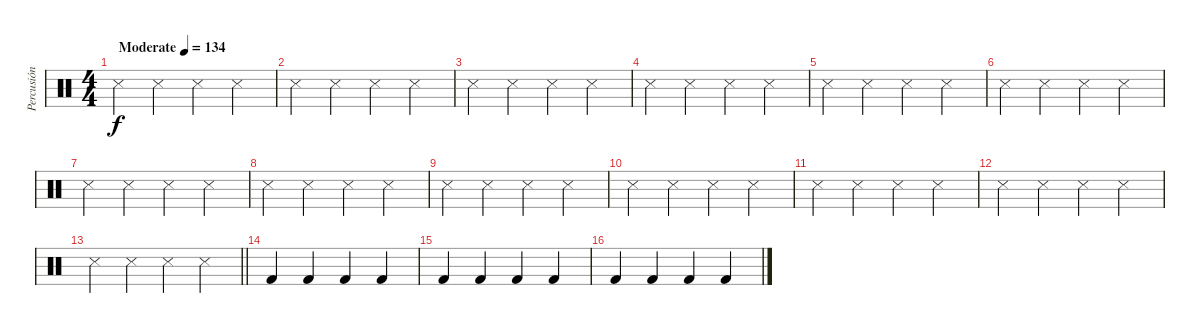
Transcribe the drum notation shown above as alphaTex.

\track ("Percusión" "Percusión") {instrument percussion}
\staff {score}
\articulation defaults
\ts (4 4)
\tempo (134 "Moderate")
\clef neutral
\ks c "Snare (side stick) 3".4{dy f} "Snare (side stick) 3".4 "Snare (side stick) 3".4 "Snare (side stick) 3".4
|
"Snare (side stick) 3".4 "Snare (side stick) 3".4 "Snare (side stick) 3".4 "Snare (side stick) 3".4 |
"Snare (side stick) 3".4 "Snare (side stick) 3".4 "Snare (side stick) 3".4 "Snare (side stick) 3".4 |
"Snare (side stick) 3".4 "Snare (side stick) 3".4 "Snare (side stick) 3".4 "Snare (side stick) 3".4 |
"Snare (side stick) 3".4 "Snare (side stick) 3".4 "Snare (side stick) 3".4 "Snare (side stick) 3".4 |
"Snare (side stick) 3".4 "Snare (side stick) 3".4 "Snare (side stick) 3".4 "Snare (side stick) 3".4 |
"Snare (side stick) 3".4 "Snare (side stick) 3".4 "Snare (side stick) 3".4 "Snare (side stick) 3".4 |
"Snare (side stick) 3".4 "Snare (side stick) 3".4 "Snare (side stick) 3".4 "Snare (side stick) 3".4 |
"Snare (side stick) 3".4 "Snare (side stick) 3".4 "Snare (side stick) 3".4 "Snare (side stick) 3".4 |
"Snare (side stick) 3".4 "Snare (side stick) 3".4 "Snare (side stick) 3".4 "Snare (side stick) 3".4 |
"Snare (side stick) 3".4 "Snare (side stick) 3".4 "Snare (side stick) 3".4 "Snare (side stick) 3".4 |
"Snare (side stick) 3".4 "Snare (side stick) 3".4 "Snare (side stick) 3".4 "Snare (side stick) 3".4 |
\barLineRight lightlight "Snare (side stick) 3".4 "Snare (side stick) 3".4 "Snare (side stick) 3".4 "Snare (side stick) 3".4
|
"Kick (hit) 2".4 "Kick (hit) 2".4 "Kick (hit) 2".4 "Kick (hit) 2".4 |
"Kick (hit) 2".4 "Kick (hit) 2".4 "Kick (hit) 2".4 "Kick (hit) 2".4 |
"Kick (hit) 2".4 "Kick (hit) 2".4 "Kick (hit) 2".4 "Kick (hit) 2".4
